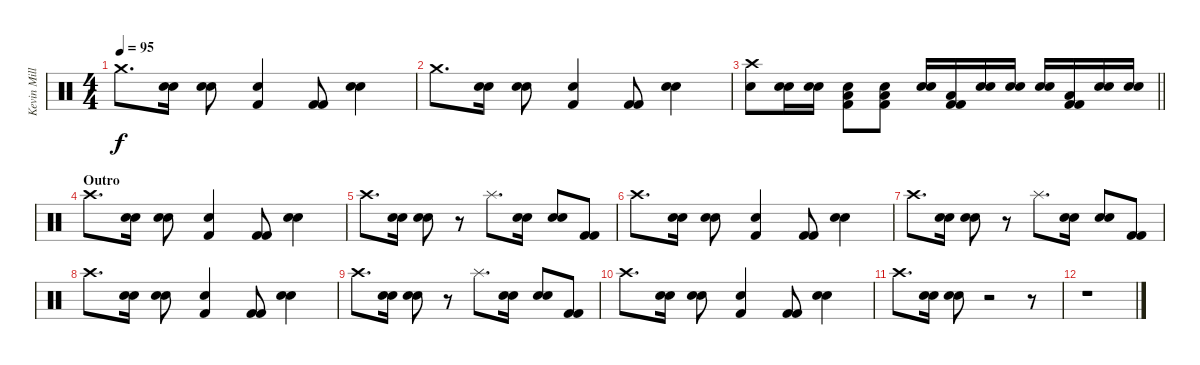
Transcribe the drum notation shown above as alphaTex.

\track ("Kevin Miller (Drums)" "Kevin Mill") {instrument percussion}
\staff {score}
\articulation defaults
\ts (4 4)
\tempo 95
\clef neutral
\ks c "Crash medium (hit)".8{d dy f}
("Electric Snare (hit)" "Electric Snare (hit)").16 ("Electric Snare (hit)" "Electric Snare (hit)").8 ("Electric Snare (hit)" "Kick (hit) 2").4 ("Kick (hit) 2" "Kick (hit) 2").8 ("Electric Snare (hit)" "Electric Snare (hit)").4 |
"Crash medium (hit)".8{d} ("Electric Snare (hit)" "Electric Snare (hit)").16 ("Electric Snare (hit)" "Electric Snare (hit)").8 ("Electric Snare (hit)" "Kick (hit) 2").4 ("Kick (hit) 2" "Kick (hit) 2").8 ("Electric Snare (hit)" "Electric Snare (hit)").4 |
\barLineRight lightlight
("Crash high (hit)" "Electric Snare (hit)").8 ("Electric Snare (hit)" "Electric Snare (hit)").16 ("Electric Snare (hit)" "Electric Snare (hit)").16 ("Electric Snare (hit)" "Kick (hit) 2" "Low Tom (hit)").8 ("Electric Snare (hit)" "Kick (hit) 2" "Low Tom (hit)").8 ("Electric Snare (hit)" "Electric Snare (hit)").16 ("Kick (hit) 2" "Kick (hit) 2" "Low Tom (hit)").16 ("Electric Snare (hit)" "Electric Snare (hit)").16 ("Electric Snare (hit)" "Electric Snare (hit)").16 ("Electric Snare (hit)" "Electric Snare (hit)").16 ("Kick (hit) 2" "Kick (hit) 2" "Low Tom (hit)").16 ("Electric Snare (hit)" "Electric Snare (hit)").16 ("Electric Snare (hit)" "Electric Snare (hit)").16 |
\section ("" "Outro")
"Crash high (hit)".8{d} ("Electric Snare (hit)" "Electric Snare (hit)").16 ("Electric Snare (hit)" "Electric Snare (hit)").8 ("Electric Snare (hit)" "Kick (hit) 2").4 ("Kick (hit) 2" "Kick (hit) 2").8 ("Electric Snare (hit)" "Electric Snare (hit)").4 |
"Crash high (hit)".8{d} ("Electric Snare (hit)" "Electric Snare (hit)").16 ("Electric Snare (hit)" "Electric Snare (hit)").8 r.8 "Splash (hit)".8{d} ("Electric Snare (hit)" "Electric Snare (hit)").16 ("Electric Snare (hit)" "Electric Snare (hit)").8 ("Kick (hit) 2" "Kick (hit) 2").8 |
"Crash high (hit)".8{d} ("Electric Snare (hit)" "Electric Snare (hit)").16 ("Electric Snare (hit)" "Electric Snare (hit)").8 ("Electric Snare (hit)" "Kick (hit) 2").4 ("Kick (hit) 2" "Kick (hit) 2").8 ("Electric Snare (hit)" "Electric Snare (hit)").4 |
"Crash high (hit)".8{d} ("Electric Snare (hit)" "Electric Snare (hit)").16 ("Electric Snare (hit)" "Electric Snare (hit)").8 r.8 "Splash (hit)".8{d} ("Electric Snare (hit)" "Electric Snare (hit)").16 ("Electric Snare (hit)" "Electric Snare (hit)").8 ("Kick (hit) 2" "Kick (hit) 2").8 |
"Crash high (hit)".8{d} ("Electric Snare (hit)" "Electric Snare (hit)").16 ("Electric Snare (hit)" "Electric Snare (hit)").8 ("Electric Snare (hit)" "Kick (hit) 2").4 ("Kick (hit) 2" "Kick (hit) 2").8 ("Electric Snare (hit)" "Electric Snare (hit)").4 |
"Crash high (hit)".8{d} ("Electric Snare (hit)" "Electric Snare (hit)").16 ("Electric Snare (hit)" "Electric Snare (hit)").8 r.8 "Splash (hit)".8{d} ("Electric Snare (hit)" "Electric Snare (hit)").16 ("Electric Snare (hit)" "Electric Snare (hit)").8 ("Kick (hit) 2" "Kick (hit) 2").8 |
"Crash high (hit)".8{d} ("Electric Snare (hit)" "Electric Snare (hit)").16 ("Electric Snare (hit)" "Electric Snare (hit)").8 ("Electric Snare (hit)" "Kick (hit) 2").4 ("Kick (hit) 2" "Kick (hit) 2").8 ("Electric Snare (hit)" "Electric Snare (hit)").4 |
"Crash high (hit)".8{d} ("Electric Snare (hit)" "Electric Snare (hit)").16 ("Electric Snare (hit)" "Electric Snare (hit)").8 r.2 r.8 |
r.1
